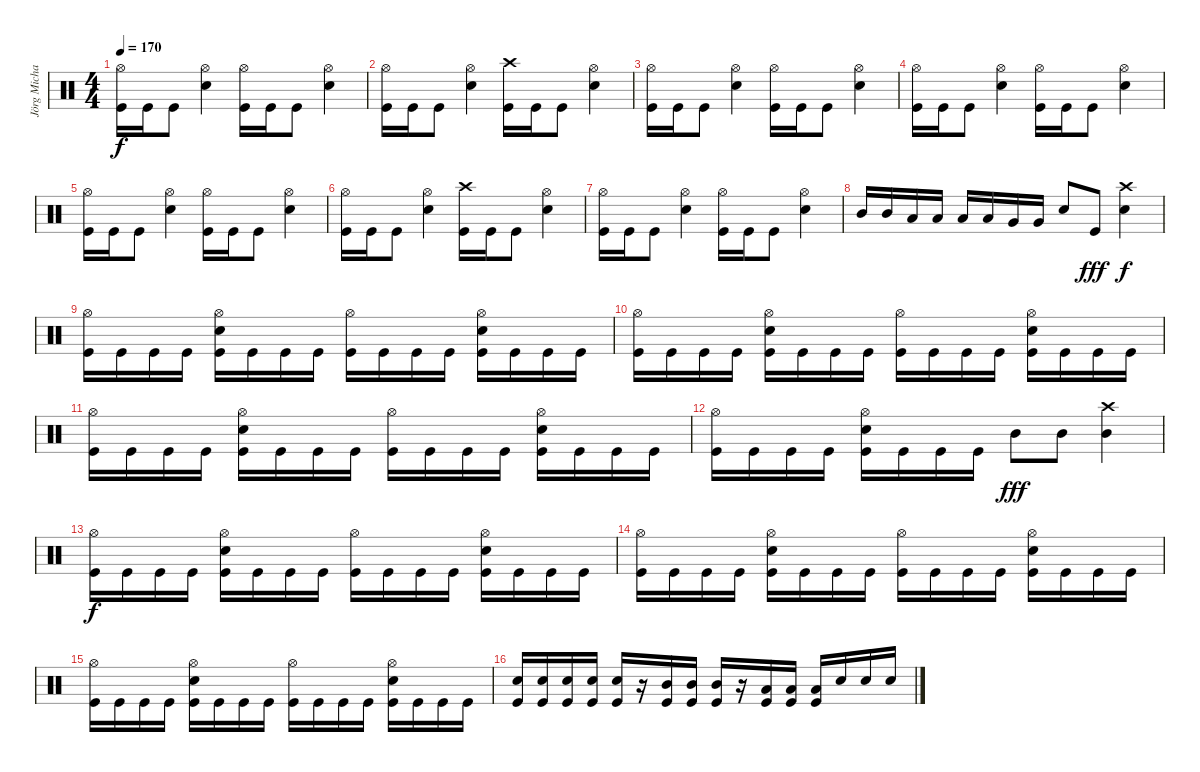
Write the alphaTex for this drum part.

\track ("Jörg Michael" "Jörg Micha") {instrument percussion}
\staff {score}
\articulation defaults
\ts (4 4)
\tempo 170
\clef neutral
\ks c
("Hi-Hat (open)" "Kick (hit)").16{dy f} "Kick (hit)".16 "Kick (hit)".8 ("Hi-Hat (open)" "Electric Snare (hit)").4 ("Hi-Hat (open)" "Kick (hit)").16 "Kick (hit)".16 "Kick (hit)".8 ("Hi-Hat (open)" "Electric Snare (hit)").4 |
("Hi-Hat (open)" "Kick (hit)").16 "Kick (hit)".16 "Kick (hit)".8 ("Hi-Hat (open)" "Electric Snare (hit)").4 ("Crash high (hit)" "Kick (hit)").16 "Kick (hit)".16 "Kick (hit)".8 ("Hi-Hat (open)" "Electric Snare (hit)").4 |
("Hi-Hat (open)" "Kick (hit)").16 "Kick (hit)".16 "Kick (hit)".8 ("Hi-Hat (open)" "Electric Snare (hit)").4 ("Hi-Hat (open)" "Kick (hit)").16 "Kick (hit)".16 "Kick (hit)".8 ("Hi-Hat (open)" "Electric Snare (hit)").4 |
("Hi-Hat (open)" "Kick (hit)").16 "Kick (hit)".16 "Kick (hit)".8 ("Hi-Hat (open)" "Electric Snare (hit)").4 ("Hi-Hat (open)" "Kick (hit)").16 "Kick (hit)".16 "Kick (hit)".8 ("Hi-Hat (open)" "Electric Snare (hit)").4 |
("Hi-Hat (open)" "Kick (hit)").16 "Kick (hit)".16 "Kick (hit)".8 ("Hi-Hat (open)" "Electric Snare (hit)").4 ("Hi-Hat (open)" "Kick (hit)").16 "Kick (hit)".16 "Kick (hit)".8 ("Hi-Hat (open)" "Electric Snare (hit)").4 |
("Hi-Hat (open)" "Kick (hit)").16 "Kick (hit)".16 "Kick (hit)".8 ("Hi-Hat (open)" "Electric Snare (hit)").4 ("Crash high (hit)" "Kick (hit)").16 "Kick (hit)".16 "Kick (hit)".8 ("Hi-Hat (open)" "Electric Snare (hit)").4 |
("Hi-Hat (open)" "Kick (hit)").16 "Kick (hit)".16 "Kick (hit)".8 ("Hi-Hat (open)" "Electric Snare (hit)").4 ("Hi-Hat (open)" "Kick (hit)").16 "Kick (hit)".16 "Kick (hit)".8 ("Hi-Hat (open)" "Electric Snare (hit)").4 |
"Mid Tom (hit)".16 "Mid Tom (hit)".16 "Low Tom (hit)".16 "Low Tom (hit)".16 "Low Floor Tom (hit)".16 "Low Floor Tom (hit)".16 "Very Low Tom (hit)".16 "Very Low Tom (hit)".16 "Electric Snare (hit)".8 "Kick (hit)".8{dy fff} ("Crash high (hit)" "Electric Snare (hit)").4{dy f} |
("Hi-Hat (open)" "Kick (hit)").16 "Kick (hit)".16 "Kick (hit)".16 "Kick (hit)".16 ("Hi-Hat (open)" "Electric Snare (hit)" "Kick (hit)").16 "Kick (hit)".16 "Kick (hit)".16 "Kick (hit)".16 ("Hi-Hat (open)" "Kick (hit)").16 "Kick (hit)".16 "Kick (hit)".16 "Kick (hit)".16 ("Hi-Hat (open)" "Electric Snare (hit)" "Kick (hit)").16 "Kick (hit)".16 "Kick (hit)".16 "Kick (hit)".16 |
("Hi-Hat (open)" "Kick (hit)").16 "Kick (hit)".16 "Kick (hit)".16 "Kick (hit)".16 ("Hi-Hat (open)" "Electric Snare (hit)" "Kick (hit)").16 "Kick (hit)".16 "Kick (hit)".16 "Kick (hit)".16 ("Hi-Hat (open)" "Kick (hit)").16 "Kick (hit)".16 "Kick (hit)".16 "Kick (hit)".16 ("Hi-Hat (open)" "Electric Snare (hit)" "Kick (hit)").16 "Kick (hit)".16 "Kick (hit)".16 "Kick (hit)".16 |
("Hi-Hat (open)" "Kick (hit)").16 "Kick (hit)".16 "Kick (hit)".16 "Kick (hit)".16 ("Hi-Hat (open)" "Electric Snare (hit)" "Kick (hit)").16 "Kick (hit)".16 "Kick (hit)".16 "Kick (hit)".16 ("Hi-Hat (open)" "Kick (hit)").16 "Kick (hit)".16 "Kick (hit)".16 "Kick (hit)".16 ("Hi-Hat (open)" "Electric Snare (hit)" "Kick (hit)").16 "Kick (hit)".16 "Kick (hit)".16 "Kick (hit)".16 |
("Hi-Hat (open)" "Kick (hit)").16 "Kick (hit)".16 "Kick (hit)".16 "Kick (hit)".16 ("Hi-Hat (open)" "Electric Snare (hit)" "Kick (hit)").16 "Kick (hit)".16 "Kick (hit)".16 "Kick (hit)".16 "Mid Tom (hit)".8{dy fff} "Mid Tom (hit)".8 ("Crash high (hit)" "Mid Tom (hit)").4 |
("Hi-Hat (open)" "Kick (hit)").16{dy f} "Kick (hit)".16 "Kick (hit)".16 "Kick (hit)".16 ("Hi-Hat (open)" "Electric Snare (hit)" "Kick (hit)").16 "Kick (hit)".16 "Kick (hit)".16 "Kick (hit)".16 ("Hi-Hat (open)" "Kick (hit)").16 "Kick (hit)".16 "Kick (hit)".16 "Kick (hit)".16 ("Hi-Hat (open)" "Electric Snare (hit)" "Kick (hit)").16 "Kick (hit)".16 "Kick (hit)".16 "Kick (hit)".16 |
("Hi-Hat (open)" "Kick (hit)").16 "Kick (hit)".16 "Kick (hit)".16 "Kick (hit)".16 ("Hi-Hat (open)" "Electric Snare (hit)" "Kick (hit)").16 "Kick (hit)".16 "Kick (hit)".16 "Kick (hit)".16 ("Hi-Hat (open)" "Kick (hit)").16 "Kick (hit)".16 "Kick (hit)".16 "Kick (hit)".16 ("Hi-Hat (open)" "Electric Snare (hit)" "Kick (hit)").16 "Kick (hit)".16 "Kick (hit)".16 "Kick (hit)".16 |
("Hi-Hat (open)" "Kick (hit)").16 "Kick (hit)".16 "Kick (hit)".16 "Kick (hit)".16 ("Hi-Hat (open)" "Electric Snare (hit)" "Kick (hit)").16 "Kick (hit)".16 "Kick (hit)".16 "Kick (hit)".16 ("Hi-Hat (open)" "Kick (hit)").16 "Kick (hit)".16 "Kick (hit)".16 "Kick (hit)".16 ("Hi-Hat (open)" "Electric Snare (hit)" "Kick (hit)").16 "Kick (hit)".16 "Kick (hit)".16 "Kick (hit)".16 |
("Electric Snare (hit)" "Kick (hit)").16 ("Electric Snare (hit)" "Kick (hit)").16 ("Electric Snare (hit)" "Kick (hit)").16 ("Electric Snare (hit)" "Kick (hit)").16 ("Electric Snare (hit)" "Kick (hit)").16 r.16 ("Mid Tom (hit)" "Kick (hit)").16 ("Mid Tom (hit)" "Kick (hit)").16 ("Mid Tom (hit)" "Kick (hit)").16 r.16 ("Low Tom (hit)" "Kick (hit)").16 ("Low Tom (hit)" "Kick (hit)").16 ("Low Tom (hit)" "Kick (hit)").16 "Electric Snare (hit)".16 "Electric Snare (hit)".16 "Electric Snare (hit)".16
